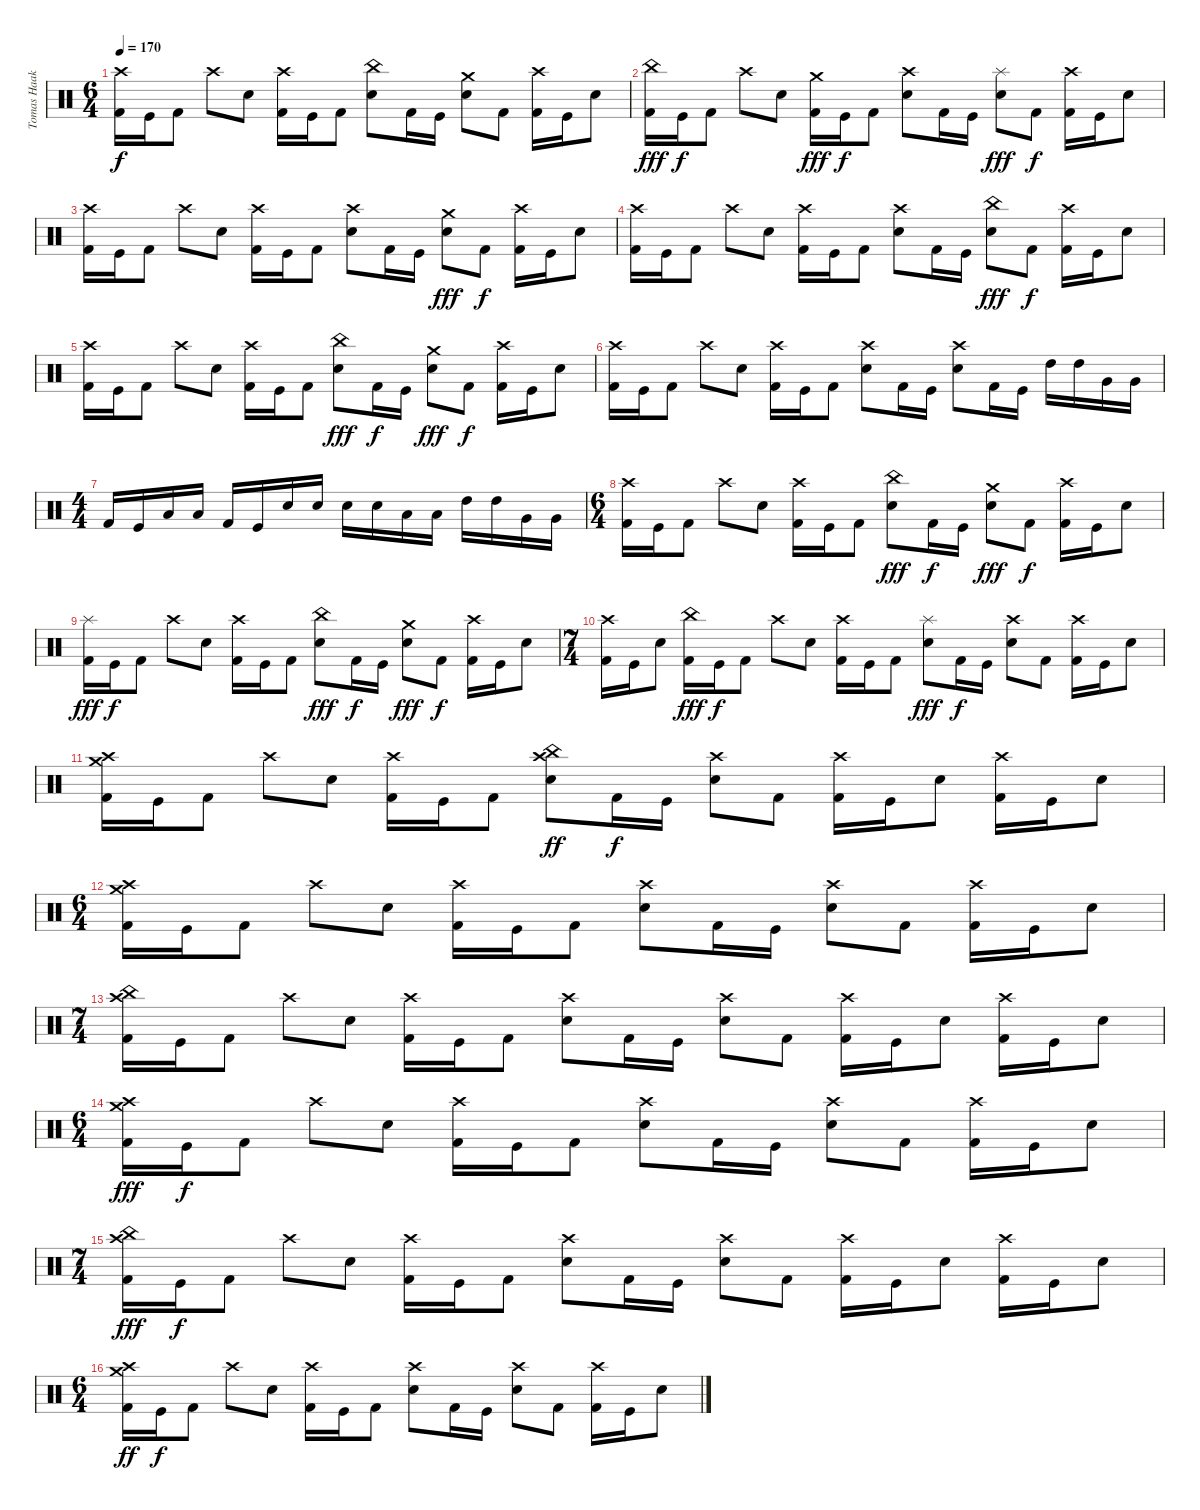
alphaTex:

\track ("Tomas Haake" "Tomas Haak") {instrument percussion}
\staff {score}
\articulation defaults
\ts (6 4)
\tempo 170
\clef neutral
\ks c
("Kick (hit) 2" "Crash high (hit)").16{dy f} "Kick (hit)".16 "Kick (hit) 2".8 "Crash high (hit)".8 "Snare (hit) 2".8 ("Kick (hit) 2" "Crash high (hit)").16 "Kick (hit)".16 "Kick (hit) 2".8 ("Snare (hit) 2" "China (hit)").8 "Kick (hit) 2".16 "Kick (hit)".16 ("Snare (hit) 2" "Crash medium (hit)").8 "Kick (hit) 2".8 ("Kick (hit) 2" "Crash high (hit)").16 "Kick (hit)".16 "Snare (hit) 2".8 |
("Kick (hit) 2" "China (hit)").16{dy fff} "Kick (hit)".16{dy f} "Kick (hit) 2".8 "Crash high (hit)".8 "Snare (hit) 2".8 ("Kick (hit) 2" "Crash medium (hit)").16{dy fff} "Kick (hit)".16{dy f} "Kick (hit) 2".8 ("Snare (hit) 2" "Crash high (hit)").8 "Kick (hit) 2".16 "Kick (hit)".16 ("Snare (hit) 2" "Splash (hit)").8{dy fff} "Kick (hit) 2".8{dy f} ("Kick (hit) 2" "Crash high (hit)").16 "Kick (hit)".16 "Snare (hit) 2".8 |
("Kick (hit) 2" "Crash high (hit)").16 "Kick (hit)".16 "Kick (hit) 2".8 "Crash high (hit)".8 "Snare (hit) 2".8 ("Kick (hit) 2" "Crash high (hit)").16 "Kick (hit)".16 "Kick (hit) 2".8 ("Snare (hit) 2" "Crash high (hit)").8 "Kick (hit) 2".16 "Kick (hit)".16 ("Snare (hit) 2" "Crash medium (hit)").8{dy fff} "Kick (hit) 2".8{dy f} ("Kick (hit) 2" "Crash high (hit)").16 "Kick (hit)".16 "Snare (hit) 2".8 |
("Kick (hit) 2" "Crash high (hit)").16 "Kick (hit)".16 "Kick (hit) 2".8 "Crash high (hit)".8 "Snare (hit) 2".8 ("Kick (hit) 2" "Crash high (hit)").16 "Kick (hit)".16 "Kick (hit) 2".8 ("Snare (hit) 2" "Crash high (hit)").8 "Kick (hit) 2".16 "Kick (hit)".16 ("Snare (hit) 2" "China (hit)").8{dy fff} "Kick (hit) 2".8{dy f} ("Kick (hit) 2" "Crash high (hit)").16 "Kick (hit)".16 "Snare (hit) 2".8 |
("Kick (hit) 2" "Crash high (hit)").16 "Kick (hit)".16 "Kick (hit) 2".8 "Crash high (hit)".8 "Snare (hit) 2".8 ("Kick (hit) 2" "Crash high (hit)").16 "Kick (hit)".16 "Kick (hit) 2".8 ("Snare (hit) 2" "China (hit)").8{dy fff} "Kick (hit) 2".16{dy f} "Kick (hit)".16 ("Snare (hit) 2" "Crash medium (hit)").8{dy fff} "Kick (hit) 2".8{dy f} ("Kick (hit) 2" "Crash high (hit)").16 "Kick (hit)".16 "Snare (hit) 2".8 |
("Kick (hit) 2" "Crash high (hit)").16 "Kick (hit)".16 "Kick (hit) 2".8 "Crash high (hit)".8 "Snare (hit) 2".8 ("Kick (hit) 2" "Crash high (hit)").16 "Kick (hit)".16 "Kick (hit) 2".8 ("Snare (hit) 2" "Crash high (hit)").8 "Kick (hit) 2".16 "Kick (hit)".16 ("Snare (hit) 2" "Crash high (hit)").8 "Kick (hit) 2".16 "Kick (hit)".16 "High Tom (hit)".16 "High Tom (hit)".16 "Very Low Tom (hit)".16 "Very Low Tom (hit)".16 |
\ts (4 4)
"Kick (hit) 2".16 "Kick (hit)".16 "Low Tom (hit)".16 "Low Tom (hit)".16 "Kick (hit) 2".16 "Kick (hit)".16 "Snare (hit) 2".16 "Snare (hit) 2".16 "Snare (hit) 2".16 "Snare (hit) 2".16 "Low Tom (hit)".16 "Low Tom (hit)".16 "High Tom (hit)".16 "High Tom (hit)".16 "Very Low Tom (hit)".16 "Very Low Tom (hit)".16 |
\ts (6 4)
("Kick (hit) 2" "Crash high (hit)").16 "Kick (hit)".16 "Kick (hit) 2".8 "Crash high (hit)".8 "Snare (hit) 2".8 ("Kick (hit) 2" "Crash high (hit)").16 "Kick (hit)".16 "Kick (hit) 2".8 ("Snare (hit) 2" "China (hit)").8{dy fff} "Kick (hit) 2".16{dy f} "Kick (hit)".16 ("Snare (hit) 2" "Crash medium (hit)").8{dy fff} "Kick (hit) 2".8{dy f} ("Kick (hit) 2" "Crash high (hit)").16 "Kick (hit)".16 "Snare (hit) 2".8 |
("Kick (hit) 2" "Splash (hit)").16{dy fff} "Kick (hit)".16{dy f} "Kick (hit) 2".8 "Crash high (hit)".8 "Snare (hit) 2".8 ("Kick (hit) 2" "Crash high (hit)").16 "Kick (hit)".16 "Kick (hit) 2".8 ("Snare (hit) 2" "China (hit)").8{dy fff} "Kick (hit) 2".16{dy f} "Kick (hit)".16 ("Snare (hit) 2" "Crash medium (hit)").8{dy fff} "Kick (hit) 2".8{dy f} ("Kick (hit) 2" "Crash high (hit)").16 "Kick (hit)".16 "Snare (hit) 2".8 |
\ts (7 4)
("Kick (hit) 2" "Crash high (hit)").16 "Kick (hit)".16 "Snare (hit) 2".8 ("Kick (hit) 2" "China (hit)").16{dy fff} "Kick (hit)".16{dy f} "Kick (hit) 2".8 "Crash high (hit)".8 "Snare (hit) 2".8 ("Kick (hit) 2" "Crash high (hit)").16 "Kick (hit)".16 "Kick (hit) 2".8 ("Snare (hit) 2" "Splash (hit)").8{dy fff} "Kick (hit) 2".16{dy f} "Kick (hit)".16 ("Snare (hit) 2" "Crash high (hit)").8 "Kick (hit) 2".8 ("Kick (hit) 2" "Crash high (hit)").16 "Kick (hit)".16 "Snare (hit) 2".8 |
("Kick (hit) 2" "Crash high (hit)" "Crash medium (hit)").16 "Kick (hit)".16 "Kick (hit) 2".8 "Crash high (hit)".8 "Snare (hit) 2".8 ("Kick (hit) 2" "Crash high (hit)").16 "Kick (hit)".16 "Kick (hit) 2".8 ("Snare (hit) 2" "Crash high (hit)" "China (hit)").8{dy ff} "Kick (hit) 2".16{dy f} "Kick (hit)".16 ("Snare (hit) 2" "Crash high (hit)").8 "Kick (hit) 2".8 ("Kick (hit) 2" "Crash high (hit)").16 "Kick (hit)".16 "Snare (hit) 2".8 ("Kick (hit) 2" "Crash high (hit)").16 "Kick (hit)".16 "Snare (hit) 2".8 |
\ts (6 4)
("Kick (hit) 2" "Crash high (hit)" "Crash medium (hit)").16 "Kick (hit)".16 "Kick (hit) 2".8 "Crash high (hit)".8 "Snare (hit) 2".8 ("Kick (hit) 2" "Crash high (hit)").16 "Kick (hit)".16 "Kick (hit) 2".8 ("Snare (hit) 2" "Crash high (hit)").8 "Kick (hit) 2".16 "Kick (hit)".16 ("Snare (hit) 2" "Crash high (hit)").8 "Kick (hit) 2".8 ("Kick (hit) 2" "Crash high (hit)").16 "Kick (hit)".16 "Snare (hit) 2".8 |
\ts (7 4)
("Kick (hit) 2" "Crash high (hit)" "China (hit)").16 "Kick (hit)".16 "Kick (hit) 2".8 "Crash high (hit)".8 "Snare (hit) 2".8 ("Kick (hit) 2" "Crash high (hit)").16 "Kick (hit)".16 "Kick (hit) 2".8 ("Snare (hit) 2" "Crash high (hit)").8 "Kick (hit) 2".16 "Kick (hit)".16 ("Snare (hit) 2" "Crash high (hit)").8 "Kick (hit) 2".8 ("Kick (hit) 2" "Crash high (hit)").16 "Kick (hit)".16 "Snare (hit) 2".8 ("Kick (hit) 2" "Crash high (hit)").16 "Kick (hit)".16 "Snare (hit) 2".8 |
\ts (6 4)
("Kick (hit) 2" "Crash high (hit)" "Crash medium (hit)").16{dy fff} "Kick (hit)".16{dy f} "Kick (hit) 2".8 "Crash high (hit)".8 "Snare (hit) 2".8 ("Kick (hit) 2" "Crash high (hit)").16 "Kick (hit)".16 "Kick (hit) 2".8 ("Snare (hit) 2" "Crash high (hit)").8 "Kick (hit) 2".16 "Kick (hit)".16 ("Snare (hit) 2" "Crash high (hit)").8 "Kick (hit) 2".8 ("Kick (hit) 2" "Crash high (hit)").16 "Kick (hit)".16 "Snare (hit) 2".8 |
\ts (7 4)
("Kick (hit) 2" "Crash high (hit)" "China (hit)").16{dy fff} "Kick (hit)".16{dy f} "Kick (hit) 2".8 "Crash high (hit)".8 "Snare (hit) 2".8 ("Kick (hit) 2" "Crash high (hit)").16 "Kick (hit)".16 "Kick (hit) 2".8 ("Snare (hit) 2" "Crash high (hit)").8 "Kick (hit) 2".16 "Kick (hit)".16 ("Snare (hit) 2" "Crash high (hit)").8 "Kick (hit) 2".8 ("Kick (hit) 2" "Crash high (hit)").16 "Kick (hit)".16 "Snare (hit) 2".8 ("Kick (hit) 2" "Crash high (hit)").16 "Kick (hit)".16 "Snare (hit) 2".8 |
\ts (6 4)
("Kick (hit) 2" "Crash high (hit)" "Crash medium (hit)").16{dy ff} "Kick (hit)".16{dy f} "Kick (hit) 2".8 "Crash high (hit)".8 "Snare (hit) 2".8 ("Kick (hit) 2" "Crash high (hit)").16 "Kick (hit)".16 "Kick (hit) 2".8 ("Snare (hit) 2" "Crash high (hit)").8 "Kick (hit) 2".16 "Kick (hit)".16 ("Snare (hit) 2" "Crash high (hit)").8 "Kick (hit) 2".8 ("Kick (hit) 2" "Crash high (hit)").16 "Kick (hit)".16 "Snare (hit) 2".8
